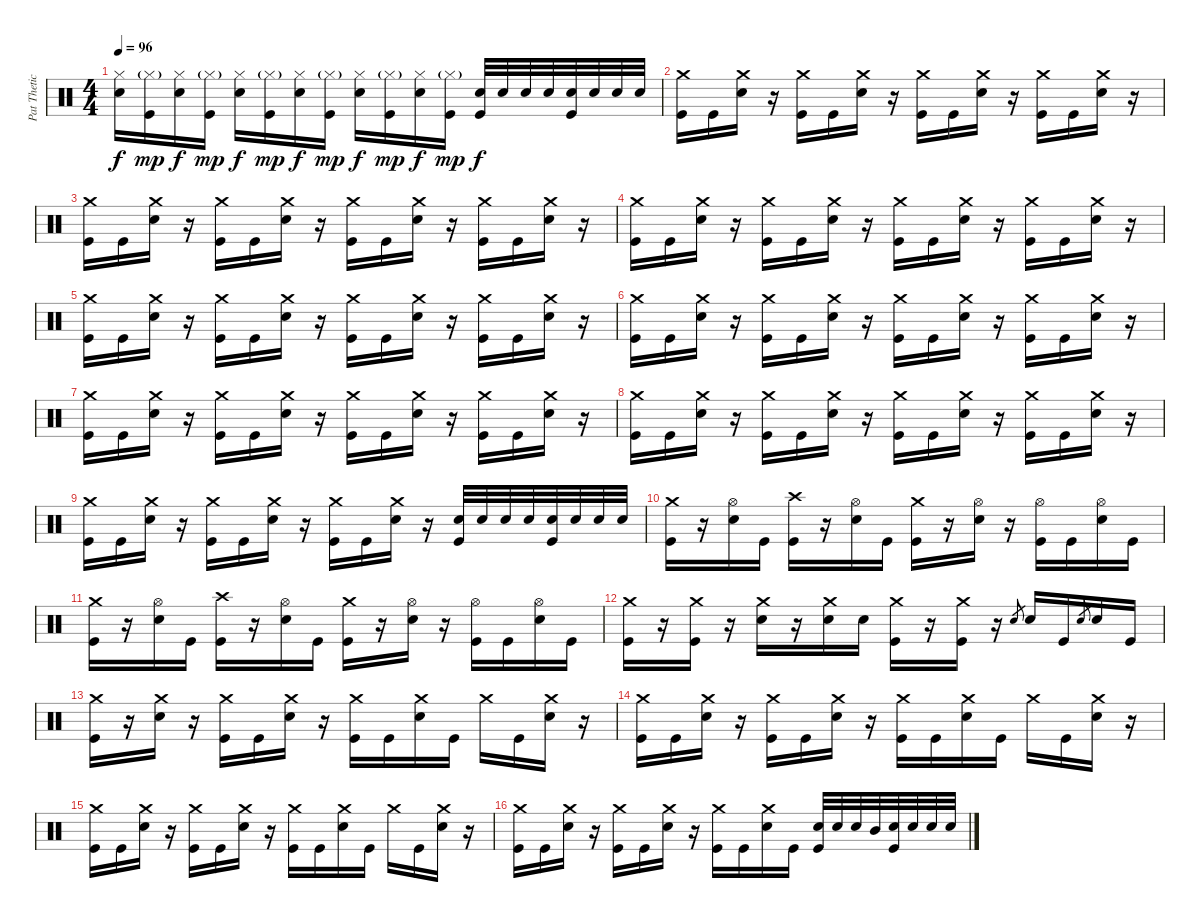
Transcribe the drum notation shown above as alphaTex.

\track ("Pat Thetic" "Pat Thetic") {instrument percussion}
\staff {score}
\articulation defaults
\ts (4 4)
\tempo 96
\clef neutral
\ks c
("Hi-Hat (closed)" "Electric Snare (hit)").16{dy f} ("Hi-Hat (closed)"{g} "Kick (hit)").16{dy mp} ("Hi-Hat (closed)" "Electric Snare (hit)").16{dy f} ("Hi-Hat (closed)"{g} "Kick (hit)").16{dy mp} ("Hi-Hat (closed)" "Electric Snare (hit)").16{dy f} ("Hi-Hat (closed)"{g} "Kick (hit)").16{dy mp} ("Hi-Hat (closed)" "Electric Snare (hit)").16{dy f} ("Hi-Hat (closed)"{g} "Kick (hit)").16{dy mp} ("Hi-Hat (closed)" "Electric Snare (hit)").16{dy f} ("Hi-Hat (closed)"{g} "Kick (hit)").16{dy mp} ("Hi-Hat (closed)" "Electric Snare (hit)").16{dy f} ("Hi-Hat (closed)"{g} "Kick (hit)").16{dy mp} ("Electric Snare (hit)" "Kick (hit)").32{dy f} "Electric Snare (hit)".32 "Electric Snare (hit)".32 "Electric Snare (hit)".32 ("Electric Snare (hit)" "Kick (hit)").32 "Electric Snare (hit)".32 "Electric Snare (hit)".32 "Electric Snare (hit)".32 |
("Crash medium (hit)" "Kick (hit)").16 "Kick (hit)".16 ("Crash medium (hit)" "Electric Snare (hit)").16 r.16 ("Crash medium (hit)" "Kick (hit)").16 "Kick (hit)".16 ("Crash medium (hit)" "Electric Snare (hit)").16 r.16 ("Crash medium (hit)" "Kick (hit)").16 "Kick (hit)".16 ("Crash medium (hit)" "Electric Snare (hit)").16 r.16 ("Crash medium (hit)" "Kick (hit)").16 "Kick (hit)".16 ("Crash medium (hit)" "Electric Snare (hit)").16 r.16 |
("Crash medium (hit)" "Kick (hit)").16 "Kick (hit)".16 ("Crash medium (hit)" "Electric Snare (hit)").16 r.16 ("Crash medium (hit)" "Kick (hit)").16 "Kick (hit)".16 ("Crash medium (hit)" "Electric Snare (hit)").16 r.16 ("Crash medium (hit)" "Kick (hit)").16 "Kick (hit)".16 ("Crash medium (hit)" "Electric Snare (hit)").16 r.16 ("Crash medium (hit)" "Kick (hit)").16 "Kick (hit)".16 ("Crash medium (hit)" "Electric Snare (hit)").16 r.16 |
("Crash medium (hit)" "Kick (hit)").16 "Kick (hit)".16 ("Crash medium (hit)" "Electric Snare (hit)").16 r.16 ("Crash medium (hit)" "Kick (hit)").16 "Kick (hit)".16 ("Crash medium (hit)" "Electric Snare (hit)").16 r.16 ("Crash medium (hit)" "Kick (hit)").16 "Kick (hit)".16 ("Crash medium (hit)" "Electric Snare (hit)").16 r.16 ("Crash medium (hit)" "Kick (hit)").16 "Kick (hit)".16 ("Crash medium (hit)" "Electric Snare (hit)").16 r.16 |
("Crash medium (hit)" "Kick (hit)").16 "Kick (hit)".16 ("Crash medium (hit)" "Electric Snare (hit)").16 r.16 ("Crash medium (hit)" "Kick (hit)").16 "Kick (hit)".16 ("Crash medium (hit)" "Electric Snare (hit)").16 r.16 ("Crash medium (hit)" "Kick (hit)").16 "Kick (hit)".16 ("Crash medium (hit)" "Electric Snare (hit)").16 r.16 ("Crash medium (hit)" "Kick (hit)").16 "Kick (hit)".16 ("Crash medium (hit)" "Electric Snare (hit)").16 r.16 |
("Crash medium (hit)" "Kick (hit)").16 "Kick (hit)".16 ("Crash medium (hit)" "Electric Snare (hit)").16 r.16 ("Crash medium (hit)" "Kick (hit)").16 "Kick (hit)".16 ("Crash medium (hit)" "Electric Snare (hit)").16 r.16 ("Crash medium (hit)" "Kick (hit)").16 "Kick (hit)".16 ("Crash medium (hit)" "Electric Snare (hit)").16 r.16 ("Crash medium (hit)" "Kick (hit)").16 "Kick (hit)".16 ("Crash medium (hit)" "Electric Snare (hit)").16 r.16 |
("Crash medium (hit)" "Kick (hit)").16 "Kick (hit)".16 ("Crash medium (hit)" "Electric Snare (hit)").16 r.16 ("Crash medium (hit)" "Kick (hit)").16 "Kick (hit)".16 ("Crash medium (hit)" "Electric Snare (hit)").16 r.16 ("Crash medium (hit)" "Kick (hit)").16 "Kick (hit)".16 ("Crash medium (hit)" "Electric Snare (hit)").16 r.16 ("Crash medium (hit)" "Kick (hit)").16 "Kick (hit)".16 ("Crash medium (hit)" "Electric Snare (hit)").16 r.16 |
("Crash medium (hit)" "Kick (hit)").16 "Kick (hit)".16 ("Crash medium (hit)" "Electric Snare (hit)").16 r.16 ("Crash medium (hit)" "Kick (hit)").16 "Kick (hit)".16 ("Crash medium (hit)" "Electric Snare (hit)").16 r.16 ("Crash medium (hit)" "Kick (hit)").16 "Kick (hit)".16 ("Crash medium (hit)" "Electric Snare (hit)").16 r.16 ("Crash medium (hit)" "Kick (hit)").16 "Kick (hit)".16 ("Crash medium (hit)" "Electric Snare (hit)").16 r.16 |
("Crash medium (hit)" "Kick (hit)").16 "Kick (hit)".16 ("Crash medium (hit)" "Electric Snare (hit)").16 r.16 ("Crash medium (hit)" "Kick (hit)").16 "Kick (hit)".16 ("Crash medium (hit)" "Electric Snare (hit)").16 r.16 ("Crash medium (hit)" "Kick (hit)").16 "Kick (hit)".16 ("Crash medium (hit)" "Electric Snare (hit)").16 r.16 ("Electric Snare (hit)" "Kick (hit)").32 "Electric Snare (hit)".32 "Electric Snare (hit)".32 "Electric Snare (hit)".32 ("Electric Snare (hit)" "Kick (hit)").32 "Electric Snare (hit)".32 "Electric Snare (hit)".32 "Electric Snare (hit)".32 |
("Crash medium (hit)" "Kick (hit)").16 r.16 ("Hi-Hat (open)" "Electric Snare (hit)").16 "Kick (hit)".16 ("Crash high (hit)" "Kick (hit)").16 r.16 ("Hi-Hat (open)" "Electric Snare (hit)").16 "Kick (hit)".16 ("Crash medium (hit)" "Kick (hit)").16 r.16 ("Hi-Hat (open)" "Electric Snare (hit)").16 r.16 ("Hi-Hat (open)" "Kick (hit)").16 "Kick (hit)".16 ("Hi-Hat (open)" "Electric Snare (hit)").16 "Kick (hit)".16 |
("Crash medium (hit)" "Kick (hit)").16 r.16 ("Hi-Hat (open)" "Electric Snare (hit)").16 "Kick (hit)".16 ("Crash high (hit)" "Kick (hit)").16 r.16 ("Hi-Hat (open)" "Electric Snare (hit)").16 "Kick (hit)".16 ("Crash medium (hit)" "Kick (hit)").16 r.16 ("Hi-Hat (open)" "Electric Snare (hit)").16 r.16 ("Hi-Hat (open)" "Kick (hit)").16 "Kick (hit)".16 ("Hi-Hat (open)" "Electric Snare (hit)").16 "Kick (hit)".16 |
("Crash medium (hit)" "Kick (hit)").16 r.16 ("Crash medium (hit)" "Kick (hit)").16 r.16 ("Crash medium (hit)" "Electric Snare (hit)").16 r.16 ("Crash medium (hit)" "Electric Snare (hit)").16 "Electric Snare (hit)".16 ("Crash medium (hit)" "Kick (hit)").16 r.16 ("Crash medium (hit)" "Kick (hit)").16 r.16 "Electric Snare (hit)".8{gr} "Electric Snare (hit)".16 "Kick (hit)".16 "Electric Snare (hit)".8{gr} "Electric Snare (hit)".16 "Kick (hit)".16 |
("Crash medium (hit)" "Kick (hit)").16 r.16 ("Crash medium (hit)" "Electric Snare (hit)").16 r.16 ("Crash medium (hit)" "Kick (hit)").16 "Kick (hit)".16 ("Crash medium (hit)" "Electric Snare (hit)").16 r.16 ("Crash medium (hit)" "Kick (hit)").16 "Kick (hit)".16 ("Crash medium (hit)" "Electric Snare (hit)").16 "Kick (hit)".16 "Crash medium (hit)".16 "Kick (hit)".16 ("Crash medium (hit)" "Electric Snare (hit)").16 r.16 |
("Crash medium (hit)" "Kick (hit)").16 "Kick (hit)".16 ("Crash medium (hit)" "Electric Snare (hit)").16 r.16 ("Crash medium (hit)" "Kick (hit)").16 "Kick (hit)".16 ("Crash medium (hit)" "Electric Snare (hit)").16 r.16 ("Crash medium (hit)" "Kick (hit)").16 "Kick (hit)".16 ("Crash medium (hit)" "Electric Snare (hit)").16 "Kick (hit)".16 "Crash medium (hit)".16 "Kick (hit)".16 ("Crash medium (hit)" "Electric Snare (hit)").16 r.16 |
("Crash medium (hit)" "Kick (hit)").16 "Kick (hit)".16 ("Crash medium (hit)" "Electric Snare (hit)").16 r.16 ("Crash medium (hit)" "Kick (hit)").16 "Kick (hit)".16 ("Crash medium (hit)" "Electric Snare (hit)").16 r.16 ("Crash medium (hit)" "Kick (hit)").16 "Kick (hit)".16 ("Crash medium (hit)" "Electric Snare (hit)").16 "Kick (hit)".16 "Crash medium (hit)".16 "Kick (hit)".16 ("Crash medium (hit)" "Electric Snare (hit)").16 r.16 |
("Crash medium (hit)" "Kick (hit)").16 "Kick (hit)".16 ("Crash medium (hit)" "Electric Snare (hit)").16 r.16 ("Crash medium (hit)" "Kick (hit)").16 "Kick (hit)".16 ("Crash medium (hit)" "Electric Snare (hit)").16 r.16 ("Crash medium (hit)" "Kick (hit)").16 "Kick (hit)".16 ("Crash medium (hit)" "Electric Snare (hit)").16 "Kick (hit)".16 ("Electric Snare (hit)" "Kick (hit)").32 "Electric Snare (hit)".32 "Electric Snare (hit)".32 "Mid Tom (hit)".32 ("Electric Snare (hit)" "Kick (hit)").32 "Electric Snare (hit)".32 "Electric Snare (hit)".32 "Electric Snare (hit)".32
